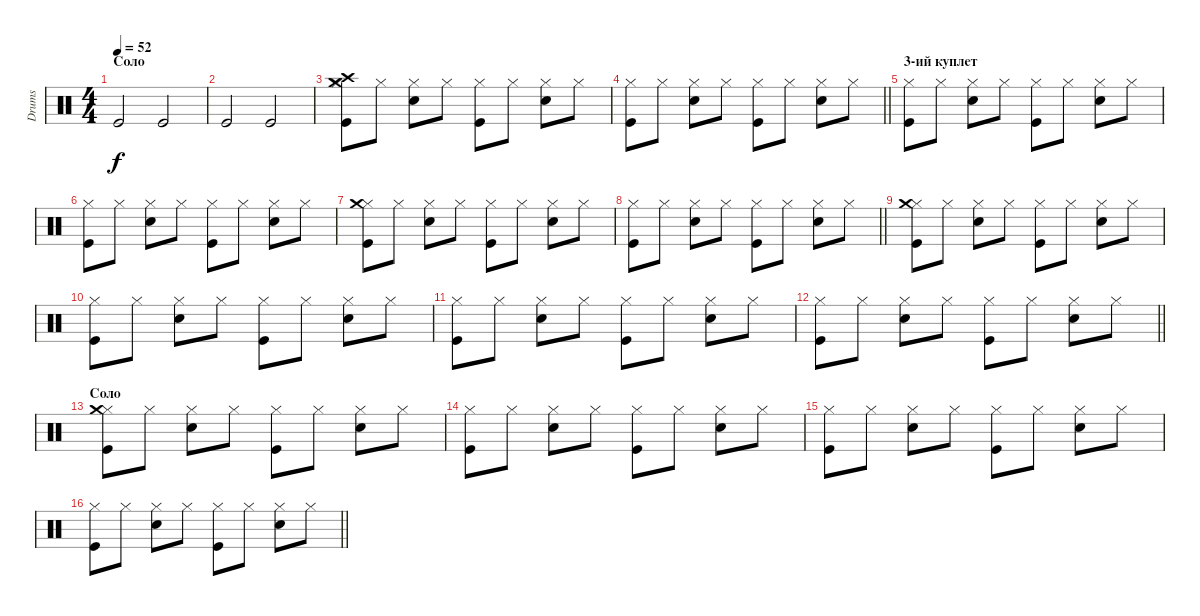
\track ("Drums" "Drums") {instrument percussion}
\staff {score}
\articulation defaults
\ts (4 4)
\section ("" "Соло")
\tempo 52
\clef neutral
\ks c "Kick (hit)".2{dy f} "Kick (hit)".2
|
"Kick (hit)".2 "Kick (hit)".2 |
("Kick (hit)" "Hi-Hat (closed)" "Crash medium (hit)" "Crash high (hit)").8 "Hi-Hat (closed)".8 ("Snare (hit) 2" "Hi-Hat (closed)").8 "Hi-Hat (closed)".8 ("Kick (hit)" "Hi-Hat (closed)").8 "Hi-Hat (closed)".8 ("Snare (hit) 2" "Hi-Hat (closed)").8 "Hi-Hat (closed)".8 |
\barLineRight lightlight
("Kick (hit)" "Hi-Hat (closed)").8 "Hi-Hat (closed)".8 ("Snare (hit) 2" "Hi-Hat (closed)").8 "Hi-Hat (closed)".8 ("Kick (hit)" "Hi-Hat (closed)").8 "Hi-Hat (closed)".8 ("Snare (hit) 2" "Hi-Hat (closed)").8 "Hi-Hat (closed)".8 |
\section ("" "3-ий куплет")
("Kick (hit)" "Hi-Hat (closed)").8 "Hi-Hat (closed)".8 ("Snare (hit) 2" "Hi-Hat (closed)").8 "Hi-Hat (closed)".8 ("Kick (hit)" "Hi-Hat (closed)").8 "Hi-Hat (closed)".8 ("Snare (hit) 2" "Hi-Hat (closed)").8 "Hi-Hat (closed)".8 |
("Kick (hit)" "Hi-Hat (closed)").8 "Hi-Hat (closed)".8 ("Snare (hit) 2" "Hi-Hat (closed)").8 "Hi-Hat (closed)".8 ("Kick (hit)" "Hi-Hat (closed)").8 "Hi-Hat (closed)".8 ("Snare (hit) 2" "Hi-Hat (closed)").8 "Hi-Hat (closed)".8 |
("Kick (hit)" "Hi-Hat (closed)" "Crash medium (hit)").8 "Hi-Hat (closed)".8 ("Snare (hit) 2" "Hi-Hat (closed)").8 "Hi-Hat (closed)".8 ("Kick (hit)" "Hi-Hat (closed)").8 "Hi-Hat (closed)".8 ("Snare (hit) 2" "Hi-Hat (closed)").8 "Hi-Hat (closed)".8 |
\barLineRight lightlight
("Kick (hit)" "Hi-Hat (closed)").8 "Hi-Hat (closed)".8 ("Snare (hit) 2" "Hi-Hat (closed)").8 "Hi-Hat (closed)".8 ("Kick (hit)" "Hi-Hat (closed)").8 "Hi-Hat (closed)".8 ("Snare (hit) 2" "Hi-Hat (closed)").8 "Hi-Hat (closed)".8 |
("Kick (hit)" "Hi-Hat (closed)" "Crash medium (hit)").8 "Hi-Hat (closed)".8 ("Snare (hit) 2" "Hi-Hat (closed)").8 "Hi-Hat (closed)".8 ("Kick (hit)" "Hi-Hat (closed)").8 "Hi-Hat (closed)".8 ("Snare (hit) 2" "Hi-Hat (closed)").8 "Hi-Hat (closed)".8 |
("Kick (hit)" "Hi-Hat (closed)").8 "Hi-Hat (closed)".8 ("Snare (hit) 2" "Hi-Hat (closed)").8 "Hi-Hat (closed)".8 ("Kick (hit)" "Hi-Hat (closed)").8 "Hi-Hat (closed)".8 ("Snare (hit) 2" "Hi-Hat (closed)").8 "Hi-Hat (closed)".8 |
("Kick (hit)" "Hi-Hat (closed)").8 "Hi-Hat (closed)".8 ("Snare (hit) 2" "Hi-Hat (closed)").8 "Hi-Hat (closed)".8 ("Kick (hit)" "Hi-Hat (closed)").8 "Hi-Hat (closed)".8 ("Snare (hit) 2" "Hi-Hat (closed)").8 "Hi-Hat (closed)".8 |
\barLineRight lightlight
("Kick (hit)" "Hi-Hat (closed)").8 "Hi-Hat (closed)".8 ("Snare (hit) 2" "Hi-Hat (closed)").8 "Hi-Hat (closed)".8 ("Kick (hit)" "Hi-Hat (closed)").8 "Hi-Hat (closed)".8 ("Snare (hit) 2" "Hi-Hat (closed)").8 "Hi-Hat (closed)".8 |
\section ("" "Соло")
("Kick (hit)" "Hi-Hat (closed)" "Crash medium (hit)").8 "Hi-Hat (closed)".8 ("Snare (hit) 2" "Hi-Hat (closed)").8 "Hi-Hat (closed)".8 ("Kick (hit)" "Hi-Hat (closed)").8 "Hi-Hat (closed)".8 ("Snare (hit) 2" "Hi-Hat (closed)").8 "Hi-Hat (closed)".8 |
("Kick (hit)" "Hi-Hat (closed)").8 "Hi-Hat (closed)".8 ("Snare (hit) 2" "Hi-Hat (closed)").8 "Hi-Hat (closed)".8 ("Kick (hit)" "Hi-Hat (closed)").8 "Hi-Hat (closed)".8 ("Snare (hit) 2" "Hi-Hat (closed)").8 "Hi-Hat (closed)".8 |
("Kick (hit)" "Hi-Hat (closed)").8 "Hi-Hat (closed)".8 ("Snare (hit) 2" "Hi-Hat (closed)").8 "Hi-Hat (closed)".8 ("Kick (hit)" "Hi-Hat (closed)").8 "Hi-Hat (closed)".8 ("Snare (hit) 2" "Hi-Hat (closed)").8 "Hi-Hat (closed)".8 |
\barLineRight lightlight
("Kick (hit)" "Hi-Hat (closed)").8 "Hi-Hat (closed)".8 ("Snare (hit) 2" "Hi-Hat (closed)").8 "Hi-Hat (closed)".8 ("Kick (hit)" "Hi-Hat (closed)").8 "Hi-Hat (closed)".8 ("Snare (hit) 2" "Hi-Hat (closed)").8 "Hi-Hat (closed)".8
